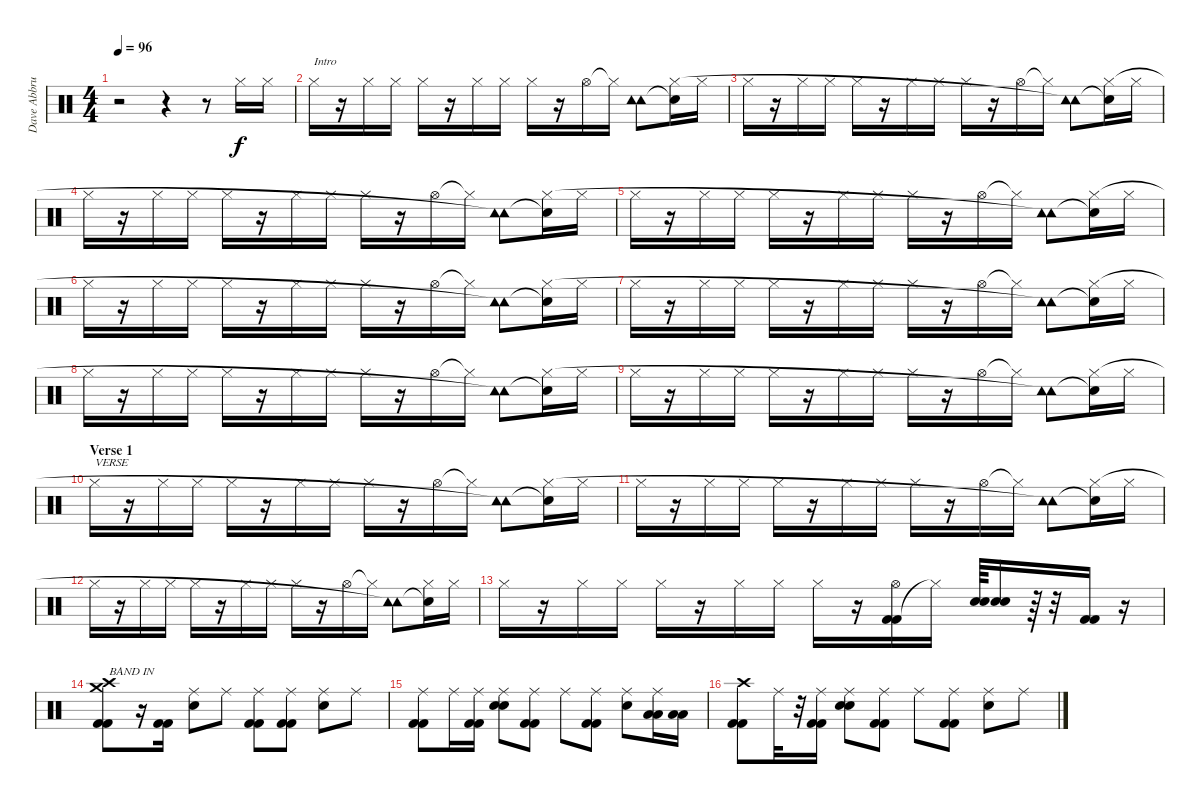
\track ("Dave Abbruzzese" "Dave Abbru") {instrument percussion}
\staff {score}
\articulation defaults
\ts (4 4)
\tempo 96
\clef neutral
\ks c
r.2{dy f} r.4 r.8 "Hi-Hat (closed)".16 "Hi-Hat (closed)".16 |
"Hi-Hat (closed)".16{txt "Intro"} r.16 "Hi-Hat (closed)".16 "Hi-Hat (closed)".16 "Hi-Hat (closed)".16 r.16 "Hi-Hat (closed)".16 "Hi-Hat (closed)".16 "Hi-Hat (closed)".16 r.16 "Hi-Hat (open)".16 "Hi-Hat (closed)"{t}.16 ("Tambourine (hit)" "Tambourine (hit)").8 ("Snare (hit)"{t} "Hi-Hat (closed)").16 "Hi-Hat (closed)".16 |
"Hi-Hat (closed)".16 r.16 "Hi-Hat (closed)".16 "Hi-Hat (closed)".16 "Hi-Hat (closed)".16 r.16 "Hi-Hat (closed)".16 "Hi-Hat (closed)".16 "Hi-Hat (closed)".16 r.16 "Hi-Hat (open)".16 "Hi-Hat (closed)"{t}.16 ("Tambourine (hit)" "Tambourine (hit)"{t}).8 ("Snare (hit)"{t} "Hi-Hat (closed)").16 "Hi-Hat (closed)".16 |
"Hi-Hat (closed)".16 r.16 "Hi-Hat (closed)".16 "Hi-Hat (closed)".16 "Hi-Hat (closed)".16 r.16 "Hi-Hat (closed)".16 "Hi-Hat (closed)".16 "Hi-Hat (closed)".16 r.16 "Hi-Hat (open)".16 "Hi-Hat (closed)"{t}.16 ("Tambourine (hit)" "Tambourine (hit)"{t}).8 ("Snare (hit)"{t} "Hi-Hat (closed)").16 "Hi-Hat (closed)".16 |
"Hi-Hat (closed)".16 r.16 "Hi-Hat (closed)".16 "Hi-Hat (closed)".16 "Hi-Hat (closed)".16 r.16 "Hi-Hat (closed)".16 "Hi-Hat (closed)".16 "Hi-Hat (closed)".16 r.16 "Hi-Hat (open)".16 "Hi-Hat (closed)"{t}.16 ("Tambourine (hit)" "Tambourine (hit)"{t}).8 ("Snare (hit)"{t} "Hi-Hat (closed)").16 "Hi-Hat (closed)".16 |
"Hi-Hat (closed)".16 r.16 "Hi-Hat (closed)".16 "Hi-Hat (closed)".16 "Hi-Hat (closed)".16 r.16 "Hi-Hat (closed)".16 "Hi-Hat (closed)".16 "Hi-Hat (closed)".16 r.16 "Hi-Hat (open)".16 "Hi-Hat (closed)"{t}.16 ("Tambourine (hit)" "Tambourine (hit)"{t}).8 ("Snare (hit)"{t} "Hi-Hat (closed)").16 "Hi-Hat (closed)".16 |
"Hi-Hat (closed)".16 r.16 "Hi-Hat (closed)".16 "Hi-Hat (closed)".16 "Hi-Hat (closed)".16 r.16 "Hi-Hat (closed)".16 "Hi-Hat (closed)".16 "Hi-Hat (closed)".16 r.16 "Hi-Hat (open)".16 "Hi-Hat (closed)"{t}.16 ("Tambourine (hit)" "Tambourine (hit)"{t}).8 ("Snare (hit)"{t} "Hi-Hat (closed)").16 "Hi-Hat (closed)".16 |
"Hi-Hat (closed)".16 r.16 "Hi-Hat (closed)".16 "Hi-Hat (closed)".16 "Hi-Hat (closed)".16 r.16 "Hi-Hat (closed)".16 "Hi-Hat (closed)".16 "Hi-Hat (closed)".16 r.16 "Hi-Hat (open)".16 "Hi-Hat (closed)"{t}.16 ("Tambourine (hit)" "Tambourine (hit)"{t}).8 ("Snare (hit)"{t} "Hi-Hat (closed)").16 "Hi-Hat (closed)".16 |
"Hi-Hat (closed)".16 r.16 "Hi-Hat (closed)".16 "Hi-Hat (closed)".16 "Hi-Hat (closed)".16 r.16 "Hi-Hat (closed)".16 "Hi-Hat (closed)".16 "Hi-Hat (closed)".16 r.16 "Hi-Hat (open)".16 "Hi-Hat (closed)"{t}.16 ("Tambourine (hit)" "Tambourine (hit)"{t}).8 ("Snare (hit)"{t} "Hi-Hat (closed)").16 "Hi-Hat (closed)".16 |
\section ("" "Verse 1")
"Hi-Hat (closed)".16{txt "VERSE"} r.16 "Hi-Hat (closed)".16 "Hi-Hat (closed)".16 "Hi-Hat (closed)".16 r.16 "Hi-Hat (closed)".16 "Hi-Hat (closed)".16 "Hi-Hat (closed)".16 r.16 "Hi-Hat (open)".16 "Hi-Hat (closed)"{t}.16 ("Tambourine (hit)" "Tambourine (hit)"{t}).8 ("Snare (hit)"{t} "Hi-Hat (closed)").16 "Hi-Hat (closed)".16 |
"Hi-Hat (closed)".16 r.16 "Hi-Hat (closed)".16 "Hi-Hat (closed)".16 "Hi-Hat (closed)".16 r.16 "Hi-Hat (closed)".16 "Hi-Hat (closed)".16 "Hi-Hat (closed)".16 r.16 "Hi-Hat (open)".16 "Hi-Hat (closed)"{t}.16 ("Tambourine (hit)" "Tambourine (hit)"{t}).8 ("Snare (hit)"{t} "Hi-Hat (closed)").16 "Hi-Hat (closed)".16 |
"Hi-Hat (closed)".16 r.16 "Hi-Hat (closed)".16 "Hi-Hat (closed)".16 "Hi-Hat (closed)".16 r.16 "Hi-Hat (closed)".16 "Hi-Hat (closed)".16 "Hi-Hat (closed)".16 r.16 "Hi-Hat (open)".16 "Hi-Hat (closed)"{t}.16 ("Tambourine (hit)" "Tambourine (hit)"{t}).8 ("Snare (hit)"{t} "Hi-Hat (closed)").16 "Hi-Hat (closed)".16 |
"Hi-Hat (closed)".16 r.16 "Hi-Hat (closed)".16 "Hi-Hat (closed)".16 "Hi-Hat (closed)".16 r.16 "Hi-Hat (closed)".16 "Hi-Hat (closed)".16 "Hi-Hat (closed)".16 r.16 ("Kick (hit) 2" "Hi-Hat (open)" "Kick (hit) 2").16 "Hi-Hat (closed)"{t}.16 ("Electric Snare (hit)" "Electric Snare (hit)").64 ("Electric Snare (hit)" "Electric Snare (hit)").16 r.64 r.32 ("Kick (hit) 2" "Kick (hit) 2").16 r.16 |
("Crash medium (hit)" "Crash high (hit)" "Kick (hit) 2" "Kick (hit) 2").8{txt "BAND IN"} r.16 ("Kick (hit) 2" "Kick (hit) 2").16 ("Ride (middle)" "Electric Snare (hit)").8 "Ride (middle)".8 ("Ride (middle)" "Kick (hit) 2" "Kick (hit) 2").8 ("Ride (middle)" "Kick (hit) 2" "Kick (hit) 2").8 ("Ride (middle)" "Electric Snare (hit)").8 "Ride (middle)".8 |
("Ride (middle)" "Kick (hit) 2" "Kick (hit) 2").8 "Ride (middle)".16 ("Ride (middle)" "Kick (hit) 2" "Kick (hit) 2").16 ("Ride (middle)" "Electric Snare (hit)" "Electric Snare (hit)").8 ("Ride (middle)" "Kick (hit) 2" "Kick (hit) 2").8 "Ride (middle)".8 ("Ride (middle)" "Kick (hit) 2" "Kick (hit) 2").8 ("Ride (middle)" "Electric Snare (hit)").8 ("Ride (middle)" "Low Tom (hit)" "Low Tom (hit)").16 ("Low Tom (hit)" "Low Tom (hit)").16 |
("Crash high (hit)" "Kick (hit) 2" "Kick (hit) 2").8 "Ride (middle)".32 r.32 ("Ride (middle)" "Kick (hit) 2" "Kick (hit) 2").16 ("Ride (middle)" "Electric Snare (hit)" "Electric Snare (hit)").8 ("Ride (middle)" "Kick (hit) 2" "Kick (hit) 2").8 "Ride (middle)".8 ("Ride (middle)" "Kick (hit) 2" "Kick (hit) 2").8 ("Ride (middle)" "Electric Snare (hit)").8 "Ride (middle)".8
